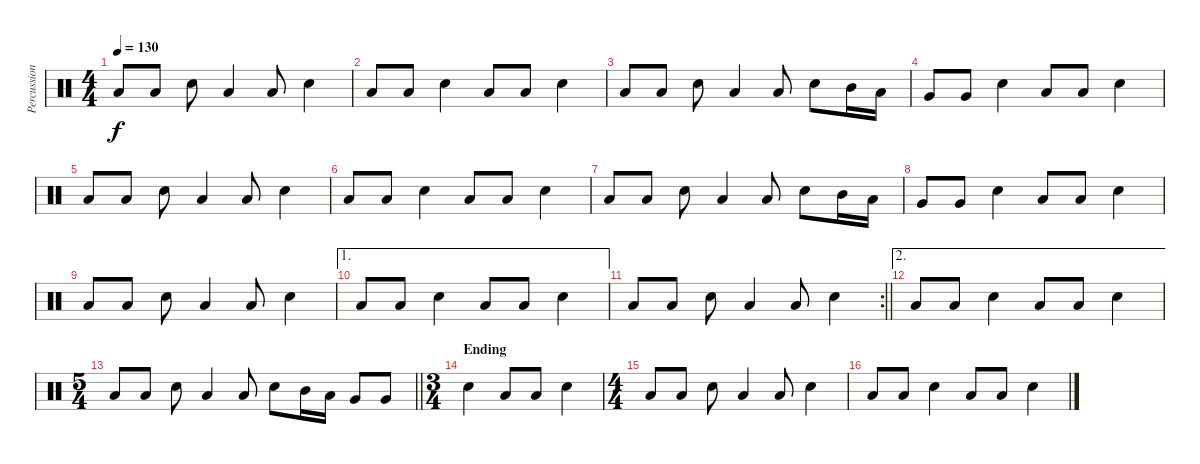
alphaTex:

\track ("Percussion 1" "Percussion") {instrument percussion}
\staff {score}
\articulation defaults
\ts (4 4)
\tempo 130
\clef neutral
\ks c "Low Floor Tom (hit)".8{dy f} "Low Floor Tom (hit)".8 "Electric Snare (hit)".8 "Low Floor Tom (hit)".4 "Low Floor Tom (hit)".8 "Electric Snare (hit)".4
|
"Low Floor Tom (hit)".8 "Low Floor Tom (hit)".8 "Electric Snare (hit)".4 "Low Floor Tom (hit)".8 "Low Floor Tom (hit)".8 "Electric Snare (hit)".4 |
"Low Floor Tom (hit)".8 "Low Floor Tom (hit)".8 "Electric Snare (hit)".8 "Low Floor Tom (hit)".4 "Low Floor Tom (hit)".8 "Electric Snare (hit)".8 "Mid Tom (hit)".16 "Low Tom (hit)".16 |
"Very Low Tom (hit)".8 "Very Low Tom (hit)".8 "Electric Snare (hit)".4 "Low Floor Tom (hit)".8 "Low Floor Tom (hit)".8 "Electric Snare (hit)".4 |
"Low Floor Tom (hit)".8 "Low Floor Tom (hit)".8 "Electric Snare (hit)".8 "Low Floor Tom (hit)".4 "Low Floor Tom (hit)".8 "Electric Snare (hit)".4 |
"Low Floor Tom (hit)".8 "Low Floor Tom (hit)".8 "Electric Snare (hit)".4 "Low Floor Tom (hit)".8 "Low Floor Tom (hit)".8 "Electric Snare (hit)".4 |
"Low Floor Tom (hit)".8 "Low Floor Tom (hit)".8 "Electric Snare (hit)".8 "Low Floor Tom (hit)".4 "Low Floor Tom (hit)".8 "Electric Snare (hit)".8 "Mid Tom (hit)".16 "Low Tom (hit)".16 |
"Very Low Tom (hit)".8 "Very Low Tom (hit)".8 "Electric Snare (hit)".4 "Low Floor Tom (hit)".8 "Low Floor Tom (hit)".8 "Electric Snare (hit)".4 |
"Low Floor Tom (hit)".8 "Low Floor Tom (hit)".8 "Electric Snare (hit)".8 "Low Floor Tom (hit)".4 "Low Floor Tom (hit)".8 "Electric Snare (hit)".4 |
\ae 1 "Low Floor Tom (hit)".8 "Low Floor Tom (hit)".8 "Electric Snare (hit)".4 "Low Floor Tom (hit)".8 "Low Floor Tom (hit)".8 "Electric Snare (hit)".4
|
\rc 2
\barLineRight lightlight "Low Floor Tom (hit)".8 "Low Floor Tom (hit)".8 "Electric Snare (hit)".8 "Low Floor Tom (hit)".4 "Low Floor Tom (hit)".8 "Electric Snare (hit)".4
|
\ae 2 "Low Floor Tom (hit)".8 "Low Floor Tom (hit)".8 "Electric Snare (hit)".4 "Low Floor Tom (hit)".8 "Low Floor Tom (hit)".8 "Electric Snare (hit)".4
|
\ts (5 4)
\barLineRight lightlight "Low Floor Tom (hit)".8 "Low Floor Tom (hit)".8 "Electric Snare (hit)".8 "Low Floor Tom (hit)".4 "Low Floor Tom (hit)".8 "Electric Snare (hit)".8 "Mid Tom (hit)".16 "Low Tom (hit)".16 "Very Low Tom (hit)".8 "Very Low Tom (hit)".8
|
\ts (3 4)
\section ("" "Ending")
"Electric Snare (hit)".4 "Low Floor Tom (hit)".8 "Low Floor Tom (hit)".8 "Electric Snare (hit)".4 |
\ts (4 4)
"Low Floor Tom (hit)".8 "Low Floor Tom (hit)".8 "Electric Snare (hit)".8 "Low Floor Tom (hit)".4 "Low Floor Tom (hit)".8 "Electric Snare (hit)".4 |
"Low Floor Tom (hit)".8 "Low Floor Tom (hit)".8 "Electric Snare (hit)".4 "Low Floor Tom (hit)".8 "Low Floor Tom (hit)".8 "Electric Snare (hit)".4
